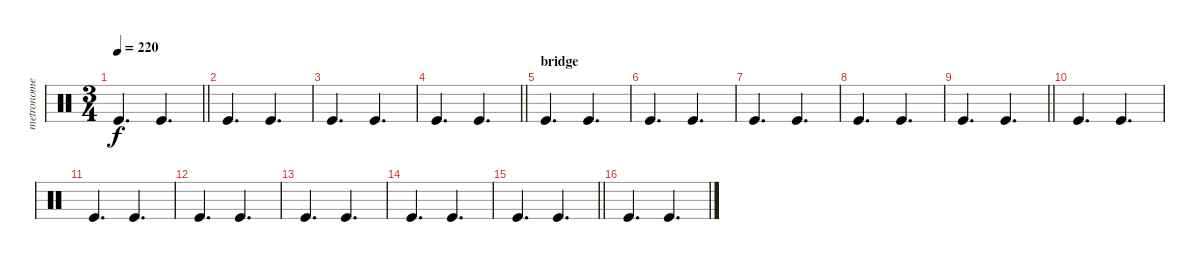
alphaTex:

\track ("metronome" "metronome") {instrument percussion}
\staff {score}
\articulation defaults
\ts (3 4)
\tempo 220
\clef neutral
\barLineRight lightlight
\ks c "Kick (hit)".4{d dy f} "Kick (hit)".4{d}
|
"Kick (hit)".4{d} "Kick (hit)".4{d} |
"Kick (hit)".4{d} "Kick (hit)".4{d} |
\barLineRight lightlight "Kick (hit)".4{d} "Kick (hit)".4{d}
|
\section ("" "bridge")
"Kick (hit)".4{d} "Kick (hit)".4{d} |
"Kick (hit)".4{d} "Kick (hit)".4{d} |
"Kick (hit)".4{d} "Kick (hit)".4{d} |
"Kick (hit)".4{d} "Kick (hit)".4{d} |
\barLineRight lightlight "Kick (hit)".4{d} "Kick (hit)".4{d}
|
"Kick (hit)".4{d} "Kick (hit)".4{d} |
"Kick (hit)".4{d} "Kick (hit)".4{d} |
"Kick (hit)".4{d} "Kick (hit)".4{d} |
"Kick (hit)".4{d} "Kick (hit)".4{d} |
"Kick (hit)".4{d} "Kick (hit)".4{d} |
\barLineRight lightlight "Kick (hit)".4{d} "Kick (hit)".4{d}
|
"Kick (hit)".4{d} "Kick (hit)".4{d}
